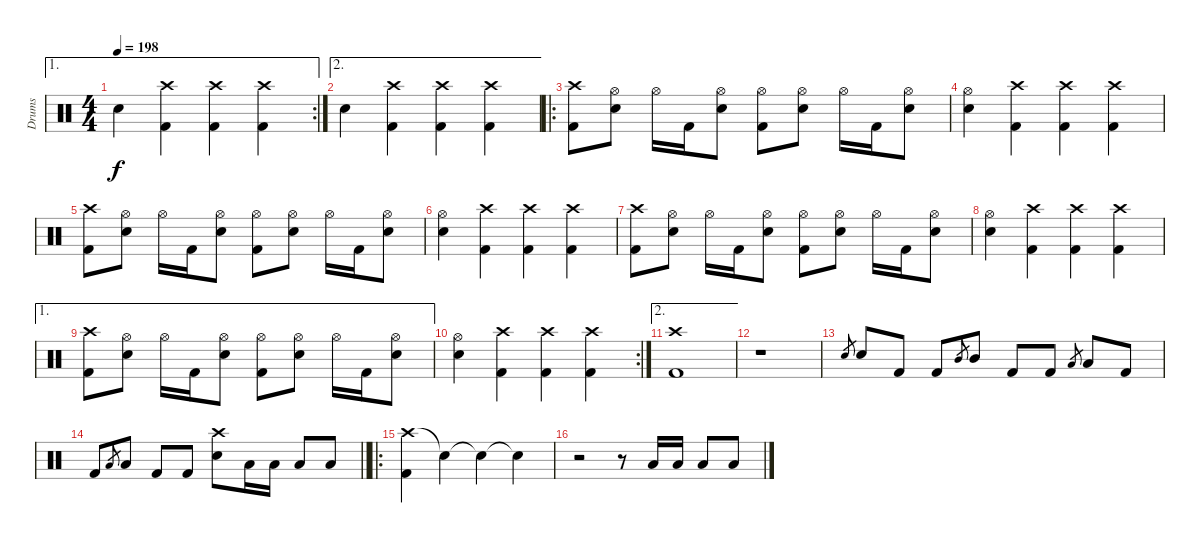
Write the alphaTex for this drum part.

\track ("Drums" "Drums") {instrument percussion}
\staff {score}
\articulation defaults
\ae 1
\rc 2
\ts (4 4)
\tempo 198
\clef neutral
\ks c "Snare (hit) 2".4{dy f}
("Crash high (hit)" "Kick (hit) 2").4 ("Crash high (hit)" "Kick (hit) 2").4 ("Crash high (hit)" "Kick (hit) 2").4 |
\ae 2 "Snare (hit) 2".4
("Crash high (hit)" "Kick (hit) 2").4 ("Crash high (hit)" "Kick (hit) 2").4 ("Crash high (hit)" "Kick (hit) 2").4 |
\ro
("Crash high (hit)" "Kick (hit) 2").8 ("Hi-Hat (open)" "Snare (hit) 2").8 "Hi-Hat (open)".16 "Kick (hit) 2".16 ("Hi-Hat (open)" "Snare (hit) 2").8 ("Hi-Hat (open)" "Kick (hit) 2").8 ("Hi-Hat (open)" "Snare (hit) 2").8 "Hi-Hat (open)".16 "Kick (hit) 2".16 ("Hi-Hat (open)" "Snare (hit) 2").8 |
("Hi-Hat (open)" "Snare (hit) 2").4 ("Crash high (hit)" "Kick (hit) 2").4 ("Crash high (hit)" "Kick (hit) 2").4 ("Crash high (hit)" "Kick (hit) 2").4 |
("Crash high (hit)" "Kick (hit) 2").8 ("Hi-Hat (open)" "Snare (hit) 2").8 "Hi-Hat (open)".16 "Kick (hit) 2".16 ("Hi-Hat (open)" "Snare (hit) 2").8 ("Hi-Hat (open)" "Kick (hit) 2").8 ("Hi-Hat (open)" "Snare (hit) 2").8 "Hi-Hat (open)".16 "Kick (hit) 2".16 ("Hi-Hat (open)" "Snare (hit) 2").8 |
("Hi-Hat (open)" "Snare (hit) 2").4 ("Crash high (hit)" "Kick (hit) 2").4 ("Crash high (hit)" "Kick (hit) 2").4 ("Crash high (hit)" "Kick (hit) 2").4 |
("Crash high (hit)" "Kick (hit) 2").8 ("Hi-Hat (open)" "Snare (hit) 2").8 "Hi-Hat (open)".16 "Kick (hit) 2".16 ("Hi-Hat (open)" "Snare (hit) 2").8 ("Hi-Hat (open)" "Kick (hit) 2").8 ("Hi-Hat (open)" "Snare (hit) 2").8 "Hi-Hat (open)".16 "Kick (hit) 2".16 ("Hi-Hat (open)" "Snare (hit) 2").8 |
("Hi-Hat (open)" "Snare (hit) 2").4 ("Crash high (hit)" "Kick (hit) 2").4 ("Crash high (hit)" "Kick (hit) 2").4 ("Crash high (hit)" "Kick (hit) 2").4 |
\ae 1
("Crash high (hit)" "Kick (hit) 2").8 ("Hi-Hat (open)" "Snare (hit) 2").8 "Hi-Hat (open)".16 "Kick (hit) 2".16 ("Hi-Hat (open)" "Snare (hit) 2").8 ("Hi-Hat (open)" "Kick (hit) 2").8 ("Hi-Hat (open)" "Snare (hit) 2").8 "Hi-Hat (open)".16 "Kick (hit) 2".16 ("Hi-Hat (open)" "Snare (hit) 2").8 |
\rc 2
("Hi-Hat (open)" "Snare (hit) 2").4 ("Crash high (hit)" "Kick (hit) 2").4 ("Crash high (hit)" "Kick (hit) 2").4 ("Crash high (hit)" "Kick (hit) 2").4 |
\ae 2
("Crash high (hit)" "Kick (hit) 2").1 |
r.1 |
"Snare (hit) 2".8{gr} "Snare (hit) 2".8 "Kick (hit) 2".8 "Kick (hit) 2".8 "Mid Tom (hit)".8{gr} "Mid Tom (hit)".8 "Kick (hit) 2".8 "Kick (hit) 2".8 "Low Tom (hit)".8{gr} "Low Tom (hit)".8 "Kick (hit) 2".8 |
\barLineRight lightlight "Kick (hit) 2".8 "Low Floor Tom (hit)".8{gr} "Low Floor Tom (hit)".8 "Kick (hit) 2".8 "Kick (hit) 2".8
("Crash high (hit)" "Snare (hit) 2").8 "Low Floor Tom (hit)".16 "Low Floor Tom (hit)".16 "Low Floor Tom (hit)".8 "Low Floor Tom (hit)".8 |
\ro
("Crash high (hit)" "Kick (hit) 2").4 "Snare (hit)"{t}.4 "Snare (hit)"{t}.4 "Snare (hit)"{t}.4 |
r.2 r.8 "Low Floor Tom (hit)".16 "Low Floor Tom (hit)".16 "Low Floor Tom (hit)".8 "Low Floor Tom (hit)".8
